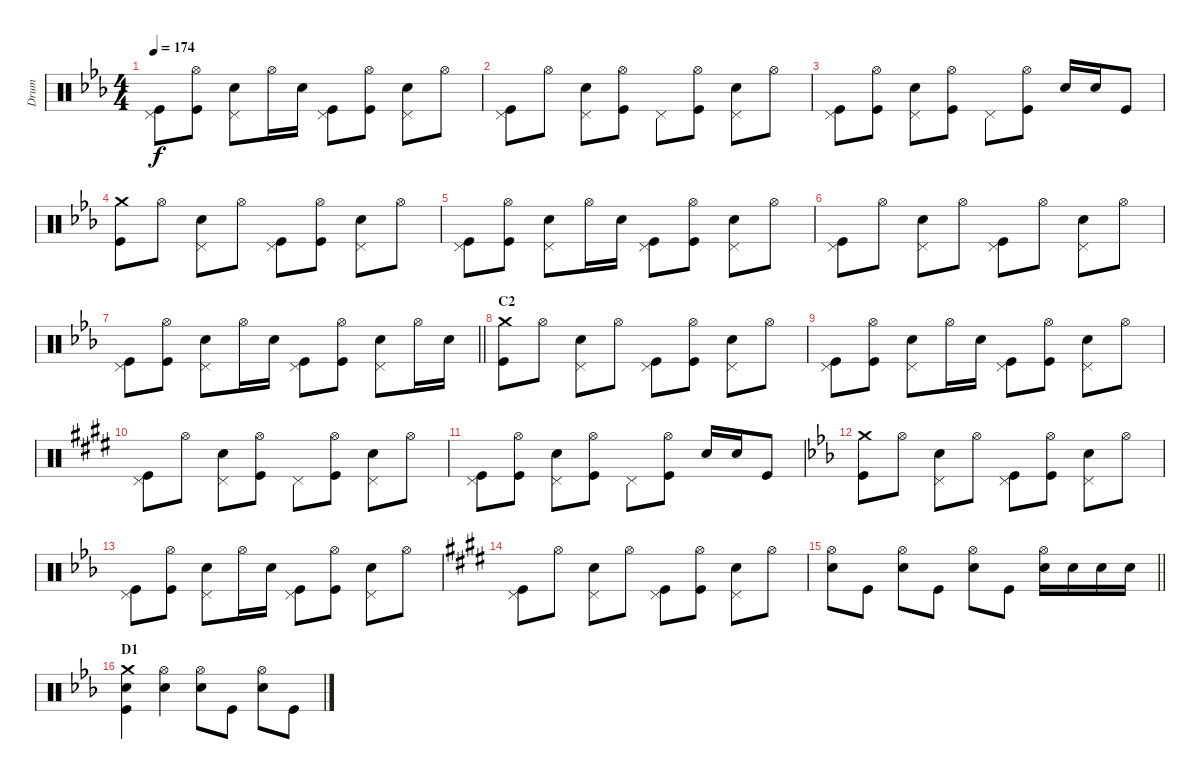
\track ("Drum" "Drum") {instrument percussion}
\staff {score}
\articulation defaults
\ts (4 4)
\tempo 174
\clef neutral
\ks eb
("Pedal Hi-Hat (hit)" "Kick (hit)").8{dy f} ("Hi-Hat (open)" "Kick (hit)").8 ("Pedal Hi-Hat (hit)" "Snare (hit) 2").8 "Hi-Hat (open)".16 "Snare (hit) 2".16 ("Pedal Hi-Hat (hit)" "Kick (hit)").8 ("Hi-Hat (open)" "Kick (hit)").8 ("Pedal Hi-Hat (hit)" "Snare (hit) 2").8 "Hi-Hat (open)".8 |
("Pedal Hi-Hat (hit)" "Kick (hit)").8 "Hi-Hat (open)".8 ("Pedal Hi-Hat (hit)" "Snare (hit) 2").8 ("Hi-Hat (open)" "Kick (hit)").8 "Pedal Hi-Hat (hit)".8 ("Hi-Hat (open)" "Kick (hit)").8 ("Pedal Hi-Hat (hit)" "Snare (hit) 2").8 "Hi-Hat (open)".8 |
("Pedal Hi-Hat (hit)" "Kick (hit)").8 ("Hi-Hat (open)" "Kick (hit)").8 ("Pedal Hi-Hat (hit)" "Snare (hit) 2").8 ("Hi-Hat (open)" "Kick (hit)").8 "Pedal Hi-Hat (hit)".8 ("Hi-Hat (open)" "Kick (hit)").8 "Snare (hit) 2".16 "Snare (hit) 2".16 "Kick (hit)".8 |
("Crash medium (hit)" "Kick (hit)").8 "Hi-Hat (open)".8 ("Pedal Hi-Hat (hit)" "Snare (hit) 2").8 "Hi-Hat (open)".8 ("Pedal Hi-Hat (hit)" "Kick (hit)").8 ("Hi-Hat (open)" "Kick (hit)").8 ("Pedal Hi-Hat (hit)" "Snare (hit) 2").8 "Hi-Hat (open)".8 |
("Pedal Hi-Hat (hit)" "Kick (hit)").8 ("Hi-Hat (open)" "Kick (hit)").8 ("Pedal Hi-Hat (hit)" "Snare (hit) 2").8 "Hi-Hat (open)".16 "Snare (hit) 2".16 ("Pedal Hi-Hat (hit)" "Kick (hit)").8 ("Hi-Hat (open)" "Kick (hit)").8 ("Pedal Hi-Hat (hit)" "Snare (hit) 2").8 "Hi-Hat (open)".8 |
("Pedal Hi-Hat (hit)" "Kick (hit)").8 "Hi-Hat (open)".8 ("Pedal Hi-Hat (hit)" "Snare (hit) 2").8 "Hi-Hat (open)".8 ("Pedal Hi-Hat (hit)" "Kick (hit)").8 "Hi-Hat (open)".8 ("Pedal Hi-Hat (hit)" "Snare (hit) 2").8 "Hi-Hat (open)".8 |
\barLineRight lightlight
("Pedal Hi-Hat (hit)" "Kick (hit)").8 ("Hi-Hat (open)" "Kick (hit)").8 ("Pedal Hi-Hat (hit)" "Snare (hit) 2").8 "Hi-Hat (open)".16 "Snare (hit) 2".16 ("Pedal Hi-Hat (hit)" "Kick (hit)").8 ("Hi-Hat (open)" "Kick (hit)").8 ("Pedal Hi-Hat (hit)" "Snare (hit) 2").8 "Hi-Hat (open)".16 "Snare (hit) 2".16 |
\section ("" "C2")
("Crash medium (hit)" "Kick (hit)").8 "Hi-Hat (open)".8 ("Pedal Hi-Hat (hit)" "Snare (hit) 2").8 "Hi-Hat (open)".8 ("Pedal Hi-Hat (hit)" "Kick (hit)").8 ("Hi-Hat (open)" "Kick (hit)").8 ("Pedal Hi-Hat (hit)" "Snare (hit) 2").8 "Hi-Hat (open)".8 |
("Pedal Hi-Hat (hit)" "Kick (hit)").8 ("Hi-Hat (open)" "Kick (hit)").8 ("Pedal Hi-Hat (hit)" "Snare (hit) 2").8 "Hi-Hat (open)".16 "Snare (hit) 2".16 ("Pedal Hi-Hat (hit)" "Kick (hit)").8 ("Hi-Hat (open)" "Kick (hit)").8 ("Pedal Hi-Hat (hit)" "Snare (hit) 2").8 "Hi-Hat (open)".8 |
\ks e
("Pedal Hi-Hat (hit)" "Kick (hit)").8 "Hi-Hat (open)".8 ("Pedal Hi-Hat (hit)" "Snare (hit) 2").8 ("Hi-Hat (open)" "Kick (hit)").8 "Pedal Hi-Hat (hit)".8 ("Hi-Hat (open)" "Kick (hit)").8 ("Pedal Hi-Hat (hit)" "Snare (hit) 2").8 "Hi-Hat (open)".8 |
("Pedal Hi-Hat (hit)" "Kick (hit)").8 ("Hi-Hat (open)" "Kick (hit)").8 ("Pedal Hi-Hat (hit)" "Snare (hit) 2").8 ("Hi-Hat (open)" "Kick (hit)").8 "Pedal Hi-Hat (hit)".8 ("Hi-Hat (open)" "Kick (hit)").8 "Snare (hit) 2".16 "Snare (hit) 2".16 "Kick (hit)".8 |
\ks eb
("Crash medium (hit)" "Kick (hit)").8 "Hi-Hat (open)".8 ("Pedal Hi-Hat (hit)" "Snare (hit) 2").8 "Hi-Hat (open)".8 ("Pedal Hi-Hat (hit)" "Kick (hit)").8 ("Hi-Hat (open)" "Kick (hit)").8 ("Pedal Hi-Hat (hit)" "Snare (hit) 2").8 "Hi-Hat (open)".8 |
("Pedal Hi-Hat (hit)" "Kick (hit)").8 ("Hi-Hat (open)" "Kick (hit)").8 ("Pedal Hi-Hat (hit)" "Snare (hit) 2").8 "Hi-Hat (open)".16 "Snare (hit) 2".16 ("Pedal Hi-Hat (hit)" "Kick (hit)").8 ("Hi-Hat (open)" "Kick (hit)").8 ("Pedal Hi-Hat (hit)" "Snare (hit) 2").8 "Hi-Hat (open)".8 |
\ks e
("Pedal Hi-Hat (hit)" "Kick (hit)").8 "Hi-Hat (open)".8 ("Pedal Hi-Hat (hit)" "Snare (hit) 2").8 "Hi-Hat (open)".8 ("Pedal Hi-Hat (hit)" "Kick (hit)").8 ("Hi-Hat (open)" "Kick (hit)").8 ("Pedal Hi-Hat (hit)" "Snare (hit) 2").8 "Hi-Hat (open)".8 |
\barLineRight lightlight
("Hi-Hat (open)" "Snare (hit) 2").8 "Kick (hit)".8 ("Hi-Hat (open)" "Snare (hit) 2").8 "Kick (hit)".8 ("Hi-Hat (open)" "Snare (hit) 2").8 "Kick (hit)".8 ("Hi-Hat (open)" "Snare (hit) 2").16 "Snare (hit) 2".16 "Snare (hit) 2".16 "Snare (hit) 2".16 |
\section ("" "D1")
\ks eb
("Crash medium (hit)" "Snare (hit) 2" "Kick (hit)").4 ("Hi-Hat (open)" "Snare (hit) 2").4 ("Hi-Hat (open)" "Snare (hit) 2").8 "Kick (hit)".8 ("Hi-Hat (open)" "Snare (hit) 2").8 "Kick (hit)".8
